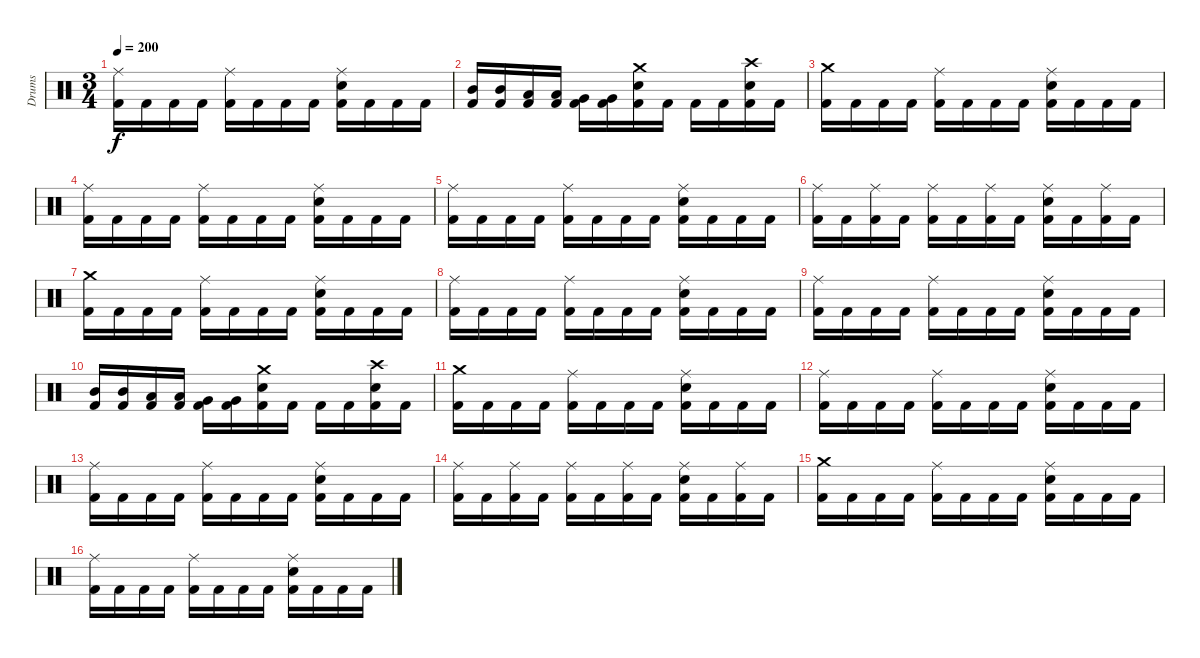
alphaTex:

\track ("Drums" "Drums") {instrument percussion}
\staff {score}
\articulation defaults
\ts (3 4)
\tempo 200
\clef neutral
\ks c
("Ride (middle)" "Kick (hit) 2").16{dy f} "Kick (hit) 2".16 "Kick (hit) 2".16 "Kick (hit) 2".16 ("Ride (middle)" "Kick (hit) 2").16 "Kick (hit) 2".16 "Kick (hit) 2".16 "Kick (hit) 2".16 ("Ride (middle)" "Electric Snare (hit)" "Kick (hit) 2").16 "Kick (hit) 2".16 "Kick (hit) 2".16 "Kick (hit) 2".16 |
("Mid Tom (hit)" "Kick (hit) 2").16 ("Mid Tom (hit)" "Kick (hit) 2").16 ("Low Tom (hit)" "Kick (hit) 2").16 ("Low Tom (hit)" "Kick (hit) 2").16 ("Very Low Tom (hit)" "Kick (hit) 2").16 ("Very Low Tom (hit)" "Kick (hit) 2").16 ("Crash medium (hit)" "Electric Snare (hit)" "Kick (hit) 2").16 "Kick (hit) 2".16 "Kick (hit) 2".16 "Kick (hit) 2".16 ("Crash high (hit)" "Electric Snare (hit)" "Kick (hit) 2").16 "Kick (hit) 2".16 |
("Crash medium (hit)" "Kick (hit) 2").16 "Kick (hit) 2".16 "Kick (hit) 2".16 "Kick (hit) 2".16 ("Ride (middle)" "Kick (hit) 2").16 "Kick (hit) 2".16 "Kick (hit) 2".16 "Kick (hit) 2".16 ("Ride (middle)" "Electric Snare (hit)" "Kick (hit) 2").16 "Kick (hit) 2".16 "Kick (hit) 2".16 "Kick (hit) 2".16 |
("Ride (middle)" "Kick (hit) 2").16 "Kick (hit) 2".16 "Kick (hit) 2".16 "Kick (hit) 2".16 ("Ride (middle)" "Kick (hit) 2").16 "Kick (hit) 2".16 "Kick (hit) 2".16 "Kick (hit) 2".16 ("Ride (middle)" "Electric Snare (hit)" "Kick (hit) 2").16 "Kick (hit) 2".16 "Kick (hit) 2".16 "Kick (hit) 2".16 |
("Ride (middle)" "Kick (hit) 2").16 "Kick (hit) 2".16 "Kick (hit) 2".16 "Kick (hit) 2".16 ("Ride (middle)" "Kick (hit) 2").16 "Kick (hit) 2".16 "Kick (hit) 2".16 "Kick (hit) 2".16 ("Ride (middle)" "Electric Snare (hit)" "Kick (hit) 2").16 "Kick (hit) 2".16 "Kick (hit) 2".16 "Kick (hit) 2".16 |
("Ride (middle)" "Kick (hit) 2").16 "Kick (hit) 2".16 ("Ride (middle)" "Kick (hit) 2").16 "Kick (hit) 2".16 ("Ride (middle)" "Kick (hit) 2").16 "Kick (hit) 2".16 ("Ride (middle)" "Kick (hit) 2").16 "Kick (hit) 2".16 ("Ride (middle)" "Electric Snare (hit)" "Kick (hit) 2").16 "Kick (hit) 2".16 ("Ride (middle)" "Kick (hit) 2").16 "Kick (hit) 2".16 |
("Crash medium (hit)" "Kick (hit) 2").16 "Kick (hit) 2".16 "Kick (hit) 2".16 "Kick (hit) 2".16 ("Ride (middle)" "Kick (hit) 2").16 "Kick (hit) 2".16 "Kick (hit) 2".16 "Kick (hit) 2".16 ("Ride (middle)" "Electric Snare (hit)" "Kick (hit) 2").16 "Kick (hit) 2".16 "Kick (hit) 2".16 "Kick (hit) 2".16 |
("Ride (middle)" "Kick (hit) 2").16 "Kick (hit) 2".16 "Kick (hit) 2".16 "Kick (hit) 2".16 ("Ride (middle)" "Kick (hit) 2").16 "Kick (hit) 2".16 "Kick (hit) 2".16 "Kick (hit) 2".16 ("Ride (middle)" "Electric Snare (hit)" "Kick (hit) 2").16 "Kick (hit) 2".16 "Kick (hit) 2".16 "Kick (hit) 2".16 |
("Ride (middle)" "Kick (hit) 2").16 "Kick (hit) 2".16 "Kick (hit) 2".16 "Kick (hit) 2".16 ("Ride (middle)" "Kick (hit) 2").16 "Kick (hit) 2".16 "Kick (hit) 2".16 "Kick (hit) 2".16 ("Ride (middle)" "Electric Snare (hit)" "Kick (hit) 2").16 "Kick (hit) 2".16 "Kick (hit) 2".16 "Kick (hit) 2".16 |
("Mid Tom (hit)" "Kick (hit) 2").16 ("Mid Tom (hit)" "Kick (hit) 2").16 ("Low Tom (hit)" "Kick (hit) 2").16 ("Low Tom (hit)" "Kick (hit) 2").16 ("Very Low Tom (hit)" "Kick (hit) 2").16 ("Very Low Tom (hit)" "Kick (hit) 2").16 ("Crash medium (hit)" "Electric Snare (hit)" "Kick (hit) 2").16 "Kick (hit) 2".16 "Kick (hit) 2".16 "Kick (hit) 2".16 ("Crash high (hit)" "Electric Snare (hit)" "Kick (hit) 2").16 "Kick (hit) 2".16 |
("Crash medium (hit)" "Kick (hit) 2").16 "Kick (hit) 2".16 "Kick (hit) 2".16 "Kick (hit) 2".16 ("Ride (middle)" "Kick (hit) 2").16 "Kick (hit) 2".16 "Kick (hit) 2".16 "Kick (hit) 2".16 ("Ride (middle)" "Electric Snare (hit)" "Kick (hit) 2").16 "Kick (hit) 2".16 "Kick (hit) 2".16 "Kick (hit) 2".16 |
("Ride (middle)" "Kick (hit) 2").16 "Kick (hit) 2".16 "Kick (hit) 2".16 "Kick (hit) 2".16 ("Ride (middle)" "Kick (hit) 2").16 "Kick (hit) 2".16 "Kick (hit) 2".16 "Kick (hit) 2".16 ("Ride (middle)" "Electric Snare (hit)" "Kick (hit) 2").16 "Kick (hit) 2".16 "Kick (hit) 2".16 "Kick (hit) 2".16 |
("Ride (middle)" "Kick (hit) 2").16 "Kick (hit) 2".16 "Kick (hit) 2".16 "Kick (hit) 2".16 ("Ride (middle)" "Kick (hit) 2").16 "Kick (hit) 2".16 "Kick (hit) 2".16 "Kick (hit) 2".16 ("Ride (middle)" "Electric Snare (hit)" "Kick (hit) 2").16 "Kick (hit) 2".16 "Kick (hit) 2".16 "Kick (hit) 2".16 |
("Ride (middle)" "Kick (hit) 2").16 "Kick (hit) 2".16 ("Ride (middle)" "Kick (hit) 2").16 "Kick (hit) 2".16 ("Ride (middle)" "Kick (hit) 2").16 "Kick (hit) 2".16 ("Ride (middle)" "Kick (hit) 2").16 "Kick (hit) 2".16 ("Ride (middle)" "Electric Snare (hit)" "Kick (hit) 2").16 "Kick (hit) 2".16 ("Ride (middle)" "Kick (hit) 2").16 "Kick (hit) 2".16 |
("Crash medium (hit)" "Kick (hit) 2").16 "Kick (hit) 2".16 "Kick (hit) 2".16 "Kick (hit) 2".16 ("Ride (middle)" "Kick (hit) 2").16 "Kick (hit) 2".16 "Kick (hit) 2".16 "Kick (hit) 2".16 ("Ride (middle)" "Electric Snare (hit)" "Kick (hit) 2").16 "Kick (hit) 2".16 "Kick (hit) 2".16 "Kick (hit) 2".16 |
("Ride (middle)" "Kick (hit) 2").16 "Kick (hit) 2".16 "Kick (hit) 2".16 "Kick (hit) 2".16 ("Ride (middle)" "Kick (hit) 2").16 "Kick (hit) 2".16 "Kick (hit) 2".16 "Kick (hit) 2".16 ("Ride (middle)" "Electric Snare (hit)" "Kick (hit) 2").16 "Kick (hit) 2".16 "Kick (hit) 2".16 "Kick (hit) 2".16
